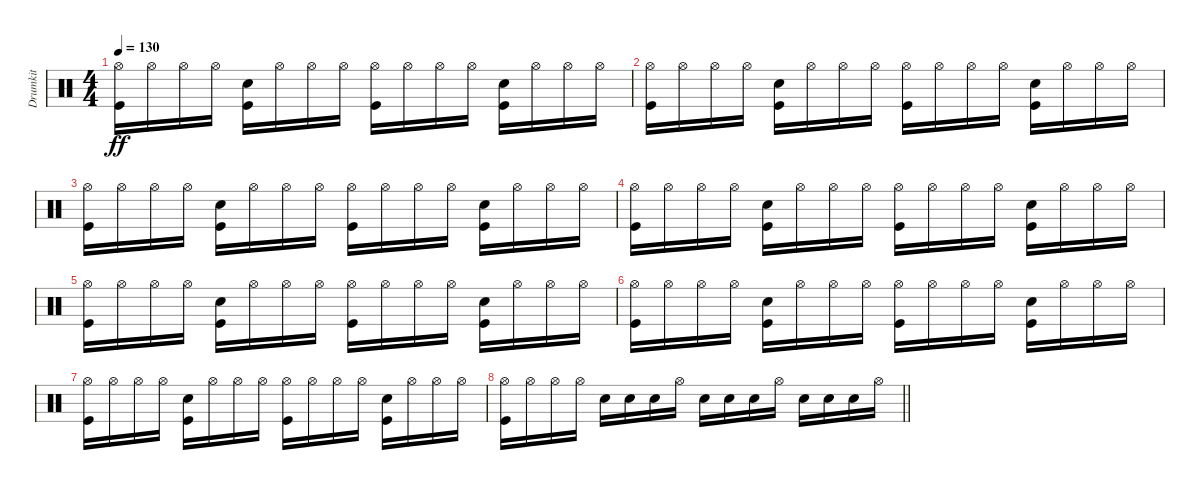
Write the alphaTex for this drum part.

\track ("Drumkit" "Drumkit") {instrument percussion}
\staff {score}
\articulation defaults
\ts (4 4)
\tempo 130
\clef neutral
\ks c
("Hi-Hat (open)" "Kick (hit)").16{dy ff} "Hi-Hat (open)".16 "Hi-Hat (open)".16 "Hi-Hat (open)".16 ("Snare (hit) 2" "Kick (hit)").16 "Hi-Hat (open)".16 "Hi-Hat (open)".16 "Hi-Hat (open)".16 ("Hi-Hat (open)" "Kick (hit)").16 "Hi-Hat (open)".16 "Hi-Hat (open)".16 "Hi-Hat (open)".16 ("Snare (hit) 2" "Kick (hit)").16 "Hi-Hat (open)".16 "Hi-Hat (open)".16 "Hi-Hat (open)".16 |
("Hi-Hat (open)" "Kick (hit)").16 "Hi-Hat (open)".16 "Hi-Hat (open)".16 "Hi-Hat (open)".16 ("Snare (hit) 2" "Kick (hit)").16 "Hi-Hat (open)".16 "Hi-Hat (open)".16 "Hi-Hat (open)".16 ("Hi-Hat (open)" "Kick (hit)").16 "Hi-Hat (open)".16 "Hi-Hat (open)".16 "Hi-Hat (open)".16 ("Snare (hit) 2" "Kick (hit)").16 "Hi-Hat (open)".16 "Hi-Hat (open)".16 "Hi-Hat (open)".16 |
("Hi-Hat (open)" "Kick (hit)").16 "Hi-Hat (open)".16 "Hi-Hat (open)".16 "Hi-Hat (open)".16 ("Snare (hit) 2" "Kick (hit)").16 "Hi-Hat (open)".16 "Hi-Hat (open)".16 "Hi-Hat (open)".16 ("Hi-Hat (open)" "Kick (hit)").16 "Hi-Hat (open)".16 "Hi-Hat (open)".16 "Hi-Hat (open)".16 ("Snare (hit) 2" "Kick (hit)").16 "Hi-Hat (open)".16 "Hi-Hat (open)".16 "Hi-Hat (open)".16 |
("Hi-Hat (open)" "Kick (hit)").16 "Hi-Hat (open)".16 "Hi-Hat (open)".16 "Hi-Hat (open)".16 ("Snare (hit) 2" "Kick (hit)").16 "Hi-Hat (open)".16 "Hi-Hat (open)".16 "Hi-Hat (open)".16 ("Hi-Hat (open)" "Kick (hit)").16 "Hi-Hat (open)".16 "Hi-Hat (open)".16 "Hi-Hat (open)".16 ("Snare (hit) 2" "Kick (hit)").16 "Hi-Hat (open)".16 "Hi-Hat (open)".16 "Hi-Hat (open)".16 |
("Hi-Hat (open)" "Kick (hit)").16 "Hi-Hat (open)".16 "Hi-Hat (open)".16 "Hi-Hat (open)".16 ("Snare (hit) 2" "Kick (hit)").16 "Hi-Hat (open)".16 "Hi-Hat (open)".16 "Hi-Hat (open)".16 ("Hi-Hat (open)" "Kick (hit)").16 "Hi-Hat (open)".16 "Hi-Hat (open)".16 "Hi-Hat (open)".16 ("Snare (hit) 2" "Kick (hit)").16 "Hi-Hat (open)".16 "Hi-Hat (open)".16 "Hi-Hat (open)".16 |
("Hi-Hat (open)" "Kick (hit)").16 "Hi-Hat (open)".16 "Hi-Hat (open)".16 "Hi-Hat (open)".16 ("Snare (hit) 2" "Kick (hit)").16 "Hi-Hat (open)".16 "Hi-Hat (open)".16 "Hi-Hat (open)".16 ("Hi-Hat (open)" "Kick (hit)").16 "Hi-Hat (open)".16 "Hi-Hat (open)".16 "Hi-Hat (open)".16 ("Snare (hit) 2" "Kick (hit)").16 "Hi-Hat (open)".16 "Hi-Hat (open)".16 "Hi-Hat (open)".16 |
("Hi-Hat (open)" "Kick (hit)").16 "Hi-Hat (open)".16 "Hi-Hat (open)".16 "Hi-Hat (open)".16 ("Snare (hit) 2" "Kick (hit)").16 "Hi-Hat (open)".16 "Hi-Hat (open)".16 "Hi-Hat (open)".16 ("Hi-Hat (open)" "Kick (hit)").16 "Hi-Hat (open)".16 "Hi-Hat (open)".16 "Hi-Hat (open)".16 ("Snare (hit) 2" "Kick (hit)").16 "Hi-Hat (open)".16 "Hi-Hat (open)".16 "Hi-Hat (open)".16 |
\barLineRight lightlight
("Kick (hit)" "Hi-Hat (open)").16 "Hi-Hat (open)".16 "Hi-Hat (open)".16 "Hi-Hat (open)".16 "Snare (hit) 2".16 "Snare (hit) 2".16 "Snare (hit) 2".16 "Hi-Hat (open)".16 "Snare (hit) 2".16 "Snare (hit) 2".16 "Snare (hit) 2".16 "Hi-Hat (open)".16 "Snare (hit) 2".16 "Snare (hit) 2".16 "Snare (hit) 2".16 "Hi-Hat (open)".16
